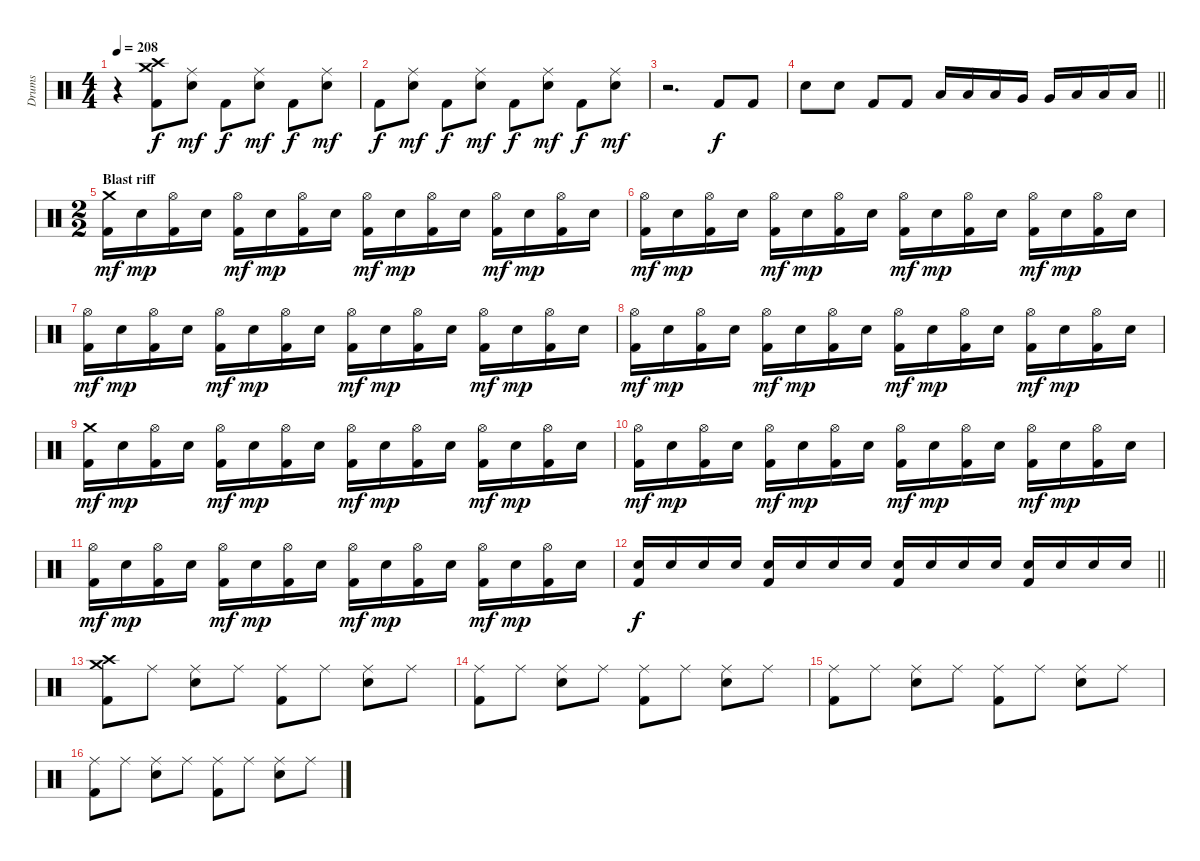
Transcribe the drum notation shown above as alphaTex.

\track ("Drums" "Drums") {instrument percussion}
\staff {score}
\articulation defaults
\ts (4 4)
\tempo 208
\clef neutral
\ks c
r.4{dy f} ("Crash high (hit)" "Crash medium (hit)" "Kick (hit) 2").8 ("Ride (middle)" "Electric Snare (hit)").8{dy mf} "Kick (hit) 2".8{dy f} ("Ride (middle)" "Electric Snare (hit)").8{dy mf} "Kick (hit) 2".8{dy f} ("Ride (middle)" "Electric Snare (hit)").8{dy mf} |
"Kick (hit) 2".8{dy f} ("Ride (middle)" "Electric Snare (hit)").8{dy mf} "Kick (hit) 2".8{dy f} ("Ride (middle)" "Electric Snare (hit)").8{dy mf} "Kick (hit) 2".8{dy f} ("Ride (middle)" "Electric Snare (hit)").8{dy mf} "Kick (hit) 2".8{dy f} ("Ride (middle)" "Electric Snare (hit)").8{dy mf} |
r.2{d} "Kick (hit) 2".8{dy f} "Kick (hit) 2".8 |
\barLineRight lightlight "Snare (hit) 2".8 "Snare (hit) 2".8 "Kick (hit) 2".8 "Kick (hit) 2".8 "Low Tom (hit)".16 "Low Tom (hit)".16 "Low Tom (hit)".16 "Very Low Tom (hit)".16 "Very Low Tom (hit)".16 "Low Floor Tom (hit)".16 "Low Floor Tom (hit)".16 "Low Floor Tom (hit)".16
|
\ts (2 2)
\section ("" "Blast riff")
("Crash medium (hit)" "Kick (hit) 2").16{dy mf} "Electric Snare (hit)".16{dy mp} ("Hi-Hat (open)" "Kick (hit) 2").16 "Electric Snare (hit)".16 ("Hi-Hat (open)" "Kick (hit) 2").16{dy mf} "Electric Snare (hit)".16{dy mp} ("Hi-Hat (open)" "Kick (hit) 2").16 "Electric Snare (hit)".16 ("Hi-Hat (open)" "Kick (hit) 2").16{dy mf} "Electric Snare (hit)".16{dy mp} ("Hi-Hat (open)" "Kick (hit) 2").16 "Electric Snare (hit)".16 ("Hi-Hat (open)" "Kick (hit) 2").16{dy mf} "Electric Snare (hit)".16{dy mp} ("Hi-Hat (open)" "Kick (hit) 2").16 "Electric Snare (hit)".16 |
("Hi-Hat (open)" "Kick (hit) 2").16{dy mf} "Electric Snare (hit)".16{dy mp} ("Hi-Hat (open)" "Kick (hit) 2").16 "Electric Snare (hit)".16 ("Hi-Hat (open)" "Kick (hit) 2").16{dy mf} "Electric Snare (hit)".16{dy mp} ("Hi-Hat (open)" "Kick (hit) 2").16 "Electric Snare (hit)".16 ("Hi-Hat (open)" "Kick (hit) 2").16{dy mf} "Electric Snare (hit)".16{dy mp} ("Hi-Hat (open)" "Kick (hit) 2").16 "Electric Snare (hit)".16 ("Hi-Hat (open)" "Kick (hit) 2").16{dy mf} "Electric Snare (hit)".16{dy mp} ("Hi-Hat (open)" "Kick (hit) 2").16 "Electric Snare (hit)".16 |
("Hi-Hat (open)" "Kick (hit) 2").16{dy mf} "Electric Snare (hit)".16{dy mp} ("Hi-Hat (open)" "Kick (hit) 2").16 "Electric Snare (hit)".16 ("Hi-Hat (open)" "Kick (hit) 2").16{dy mf} "Electric Snare (hit)".16{dy mp} ("Hi-Hat (open)" "Kick (hit) 2").16 "Electric Snare (hit)".16 ("Hi-Hat (open)" "Kick (hit) 2").16{dy mf} "Electric Snare (hit)".16{dy mp} ("Hi-Hat (open)" "Kick (hit) 2").16 "Electric Snare (hit)".16 ("Hi-Hat (open)" "Kick (hit) 2").16{dy mf} "Electric Snare (hit)".16{dy mp} ("Hi-Hat (open)" "Kick (hit) 2").16 "Electric Snare (hit)".16 |
("Hi-Hat (open)" "Kick (hit) 2").16{dy mf} "Electric Snare (hit)".16{dy mp} ("Hi-Hat (open)" "Kick (hit) 2").16 "Electric Snare (hit)".16 ("Hi-Hat (open)" "Kick (hit) 2").16{dy mf} "Electric Snare (hit)".16{dy mp} ("Hi-Hat (open)" "Kick (hit) 2").16 "Electric Snare (hit)".16 ("Hi-Hat (open)" "Kick (hit) 2").16{dy mf} "Electric Snare (hit)".16{dy mp} ("Hi-Hat (open)" "Kick (hit) 2").16 "Electric Snare (hit)".16 ("Hi-Hat (open)" "Kick (hit) 2").16{dy mf} "Electric Snare (hit)".16{dy mp} ("Hi-Hat (open)" "Kick (hit) 2").16 "Electric Snare (hit)".16 |
("Crash medium (hit)" "Kick (hit) 2").16{dy mf} "Electric Snare (hit)".16{dy mp} ("Hi-Hat (open)" "Kick (hit) 2").16 "Electric Snare (hit)".16 ("Hi-Hat (open)" "Kick (hit) 2").16{dy mf} "Electric Snare (hit)".16{dy mp} ("Hi-Hat (open)" "Kick (hit) 2").16 "Electric Snare (hit)".16 ("Hi-Hat (open)" "Kick (hit) 2").16{dy mf} "Electric Snare (hit)".16{dy mp} ("Hi-Hat (open)" "Kick (hit) 2").16 "Electric Snare (hit)".16 ("Hi-Hat (open)" "Kick (hit) 2").16{dy mf} "Electric Snare (hit)".16{dy mp} ("Hi-Hat (open)" "Kick (hit) 2").16 "Electric Snare (hit)".16 |
("Hi-Hat (open)" "Kick (hit) 2").16{dy mf} "Electric Snare (hit)".16{dy mp} ("Hi-Hat (open)" "Kick (hit) 2").16 "Electric Snare (hit)".16 ("Hi-Hat (open)" "Kick (hit) 2").16{dy mf} "Electric Snare (hit)".16{dy mp} ("Hi-Hat (open)" "Kick (hit) 2").16 "Electric Snare (hit)".16 ("Hi-Hat (open)" "Kick (hit) 2").16{dy mf} "Electric Snare (hit)".16{dy mp} ("Hi-Hat (open)" "Kick (hit) 2").16 "Electric Snare (hit)".16 ("Hi-Hat (open)" "Kick (hit) 2").16{dy mf} "Electric Snare (hit)".16{dy mp} ("Hi-Hat (open)" "Kick (hit) 2").16 "Electric Snare (hit)".16 |
("Hi-Hat (open)" "Kick (hit) 2").16{dy mf} "Electric Snare (hit)".16{dy mp} ("Hi-Hat (open)" "Kick (hit) 2").16 "Electric Snare (hit)".16 ("Hi-Hat (open)" "Kick (hit) 2").16{dy mf} "Electric Snare (hit)".16{dy mp} ("Hi-Hat (open)" "Kick (hit) 2").16 "Electric Snare (hit)".16 ("Hi-Hat (open)" "Kick (hit) 2").16{dy mf} "Electric Snare (hit)".16{dy mp} ("Hi-Hat (open)" "Kick (hit) 2").16 "Electric Snare (hit)".16 ("Hi-Hat (open)" "Kick (hit) 2").16{dy mf} "Electric Snare (hit)".16{dy mp} ("Hi-Hat (open)" "Kick (hit) 2").16 "Electric Snare (hit)".16 |
\barLineRight lightlight
("Electric Snare (hit)" "Kick (hit) 2").16{dy f} "Electric Snare (hit)".16 "Electric Snare (hit)".16 "Electric Snare (hit)".16 ("Electric Snare (hit)" "Kick (hit) 2").16 "Electric Snare (hit)".16 "Electric Snare (hit)".16 "Electric Snare (hit)".16 ("Electric Snare (hit)" "Kick (hit) 2").16 "Electric Snare (hit)".16 "Electric Snare (hit)".16 "Electric Snare (hit)".16 ("Electric Snare (hit)" "Kick (hit) 2").16 "Electric Snare (hit)".16 "Electric Snare (hit)".16 "Electric Snare (hit)".16 |
("Crash medium (hit)" "Crash high (hit)" "Kick (hit) 2").8 "Ride (middle)".8 ("Ride (middle)" "Snare (hit) 2").8 "Ride (middle)".8 ("Ride (middle)" "Kick (hit) 2").8 "Ride (middle)".8 ("Ride (middle)" "Snare (hit) 2").8 "Ride (middle)".8 |
("Ride (middle)" "Kick (hit) 2").8 "Ride (middle)".8 ("Ride (middle)" "Snare (hit) 2").8 "Ride (middle)".8 ("Ride (middle)" "Kick (hit) 2").8 "Ride (middle)".8 ("Ride (middle)" "Snare (hit) 2").8 "Ride (middle)".8 |
("Ride (middle)" "Kick (hit) 2").8 "Ride (middle)".8 ("Ride (middle)" "Snare (hit) 2").8 "Ride (middle)".8 ("Ride (middle)" "Kick (hit) 2").8 "Ride (middle)".8 ("Ride (middle)" "Snare (hit) 2").8 "Ride (middle)".8 |
("Ride (middle)" "Kick (hit) 2").8 "Ride (middle)".8 ("Ride (middle)" "Snare (hit) 2").8 "Ride (middle)".8 ("Ride (middle)" "Kick (hit) 2").8 "Ride (middle)".8 ("Ride (middle)" "Snare (hit) 2").8 "Ride (middle)".8
